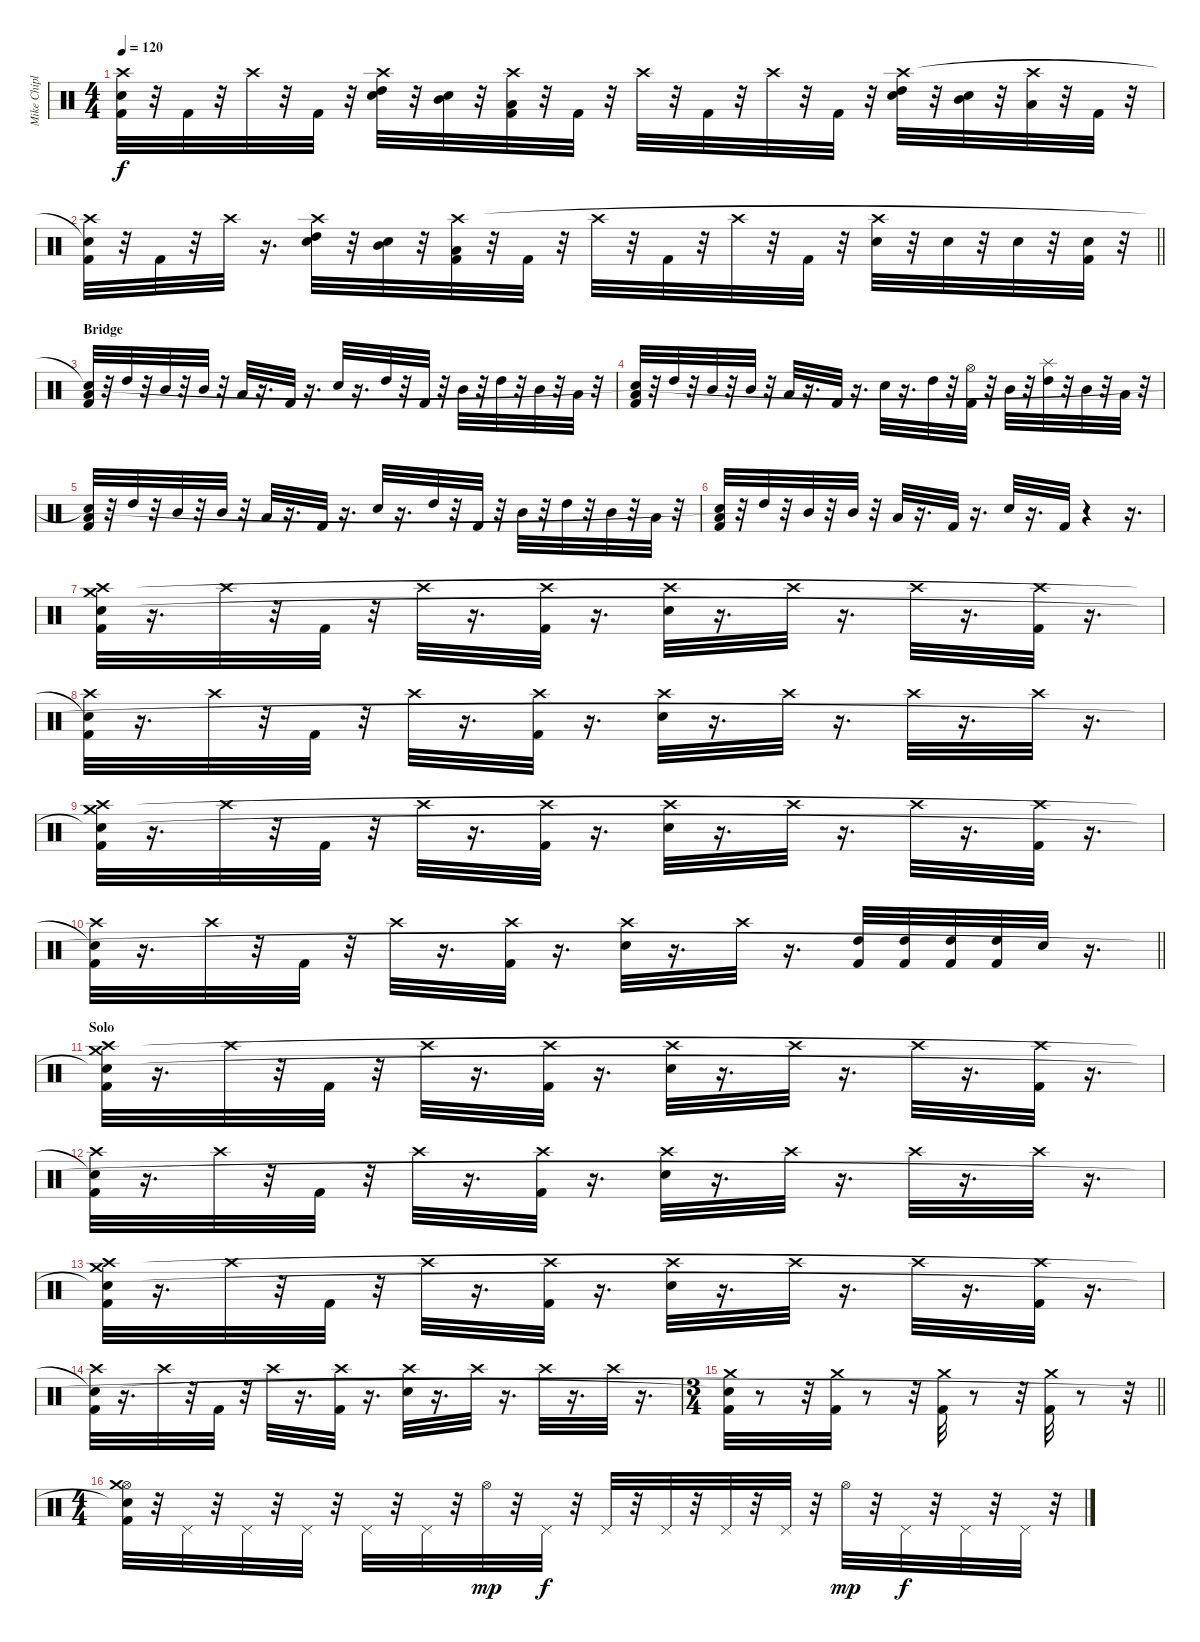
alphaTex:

\track ("Mike Chiplin - Drums" "Mike Chipl") {instrument percussion}
\staff {score}
\articulation defaults
\ts (4 4)
\tempo 120
\clef neutral
\ks c
("Kick (hit) 2" "Crash high (hit)" "Snare (hit)"{t}).32{dy f} r.32 "Kick (hit) 2".32 r.32 "Crash high (hit)".32 r.32 "Kick (hit) 2".32 r.32 ("Snare (hit) 2" "High Tom (hit)" "Crash high (hit)").32 r.32 ("Snare (hit) 2" "Mid Tom (hit)").32 r.32 ("Kick (hit) 2" "Low Tom (hit)" "Crash high (hit)").32 r.32 "Kick (hit) 2".32 r.32 "Crash high (hit)".32 r.32 "Kick (hit) 2".32 r.32 "Crash high (hit)".32 r.32 "Kick (hit) 2".32 r.32 ("Snare (hit) 2" "High Tom (hit)" "Crash high (hit)").32 r.32 ("Snare (hit) 2" "Mid Tom (hit)").32 r.32 ("Low Tom (hit)" "Crash high (hit)").32 r.32 "Kick (hit) 2".32 r.32 |
\barLineRight lightlight
("Kick (hit) 2" "Crash high (hit)" "Snare (hit)"{t}).32 r.32 "Kick (hit) 2".32 r.32 "Crash high (hit)".32 r.16{d} ("Snare (hit) 2" "High Tom (hit)" "Crash high (hit)").32 r.32 ("Snare (hit) 2" "Mid Tom (hit)").32 r.32 ("Kick (hit) 2" "Low Tom (hit)" "Crash high (hit)").32 r.32 "Kick (hit) 2".32 r.32 "Crash high (hit)".32 r.32 "Kick (hit) 2".32 r.32 "Crash high (hit)".32 r.32 "Kick (hit) 2".32 r.32 ("Snare (hit) 2" "Crash high (hit)").32 r.32 "Snare (hit) 2".32 r.32 "Snare (hit) 2".32 r.32 ("Kick (hit) 2" "Snare (hit) 2").32 r.32 |
\section ("" "Bridge")
("Kick (hit) 2" "Low Tom (hit)" "Snare (hit)"{t}).32 r.32 "High Tom (hit)".32 r.32 "Mid Tom (hit)".32 r.32 "Mid Tom (hit)".32 r.32 "Low Tom (hit)".32 r.16{d} "Kick (hit) 2".32 r.16{d} "Snare (hit) 2".32 r.16{d} "High Tom (hit)".32 r.32 "Kick (hit) 2".32 r.32 "Mid Tom (hit)".32 r.32 "High Tom (hit)".32 r.32 "Mid Tom (hit)".32 r.32 "Low Tom (hit)".32 r.32 |
("Kick (hit) 2" "Low Tom (hit)" "Snare (hit)"{t}).32 r.32 "High Tom (hit)".32 r.32 "Mid Tom (hit)".32 r.32 "Mid Tom (hit)".32 r.32 "Low Tom (hit)".32 r.16{d} "Kick (hit) 2".32 r.16{d} "Snare (hit) 2".32 r.16{d} "High Tom (hit)".32 r.32 ("Kick (hit) 2" "Hi-Hat (open)").32 r.32 "Mid Tom (hit)".32 r.32 ("High Tom (hit)" "Splash (hit)").32 r.32 "Mid Tom (hit)".32 r.32 "Low Tom (hit)".32 r.32 |
("Kick (hit) 2" "Low Tom (hit)" "Snare (hit)"{t}).32 r.32 "High Tom (hit)".32 r.32 "Mid Tom (hit)".32 r.32 "Mid Tom (hit)".32 r.32 "Low Tom (hit)".32 r.16{d} "Kick (hit) 2".32 r.16{d} "Snare (hit) 2".32 r.16{d} "High Tom (hit)".32 r.32 "Kick (hit) 2".32 r.32 "Mid Tom (hit)".32 r.32 "High Tom (hit)".32 r.32 "Mid Tom (hit)".32 r.32 "Low Tom (hit)".32 r.32 |
("Kick (hit) 2" "Low Tom (hit)" "Snare (hit)"{t}).32 r.32 "High Tom (hit)".32 r.32 "Mid Tom (hit)".32 r.32 "Mid Tom (hit)".32 r.32 "Low Tom (hit)".32 r.16{d} "Kick (hit) 2".32 r.16{d} "Snare (hit) 2".32 r.16{d} "Kick (hit) 2".32 r.4 r.16{d} |
("Kick (hit) 2" "Crash high (hit)" "Crash medium (hit)" "Snare (hit)").32 r.16{d} "Crash high (hit)".32 r.32 "Kick (hit) 2".32 r.32 "Crash high (hit)".32 r.16{d} ("Kick (hit) 2" "Crash high (hit)").32 r.16{d} ("Snare (hit) 2" "Crash high (hit)").32 r.16{d} "Crash high (hit)".32 r.16{d} "Crash high (hit)".32 r.16{d} ("Kick (hit) 2" "Crash high (hit)").32 r.16{d} |
("Kick (hit) 2" "Crash high (hit)" "Snare (hit)"{t}).32 r.16{d} "Crash high (hit)".32 r.32 "Kick (hit) 2".32 r.32 "Crash high (hit)".32 r.16{d} ("Kick (hit) 2" "Crash high (hit)").32 r.16{d} ("Snare (hit) 2" "Crash high (hit)").32 r.16{d} "Crash high (hit)".32 r.16{d} "Crash high (hit)".32 r.16{d} "Crash high (hit)".32 r.16{d} |
("Kick (hit) 2" "Crash high (hit)" "Crash medium (hit)" "Snare (hit)"{t}).32 r.16{d} "Crash high (hit)".32 r.32 "Kick (hit) 2".32 r.32 "Crash high (hit)".32 r.16{d} ("Kick (hit) 2" "Crash high (hit)").32 r.16{d} ("Snare (hit) 2" "Crash high (hit)").32 r.16{d} "Crash high (hit)".32 r.16{d} "Crash high (hit)".32 r.16{d} ("Kick (hit) 2" "Crash high (hit)").32 r.16{d} |
\barLineRight lightlight
("Kick (hit) 2" "Crash high (hit)" "Snare (hit)"{t}).32 r.16{d} "Crash high (hit)".32 r.32 "Kick (hit) 2".32 r.32 "Crash high (hit)".32 r.16{d} ("Kick (hit) 2" "Crash high (hit)").32 r.16{d} ("Snare (hit) 2" "Crash high (hit)").32 r.16{d} "Crash high (hit)".32 r.16{d} ("Kick (hit) 2" "High Tom (hit)").32 ("Kick (hit) 2" "High Tom (hit)").32 ("Kick (hit) 2" "High Tom (hit)").32 ("Kick (hit) 2" "High Tom (hit)").32 "Snare (hit) 2".32 r.16{d} |
\section ("" "Solo")
("Kick (hit) 2" "Crash high (hit)" "Crash medium (hit)" "Snare (hit)"{t}).32 r.16{d} "Crash high (hit)".32 r.32 "Kick (hit) 2".32 r.32 "Crash high (hit)".32 r.16{d} ("Kick (hit) 2" "Crash high (hit)").32 r.16{d} ("Snare (hit) 2" "Crash high (hit)").32 r.16{d} "Crash high (hit)".32 r.16{d} "Crash high (hit)".32 r.16{d} ("Kick (hit) 2" "Crash high (hit)").32 r.16{d} |
("Kick (hit) 2" "Crash high (hit)" "Snare (hit)"{t}).32 r.16{d} "Crash high (hit)".32 r.32 "Kick (hit) 2".32 r.32 "Crash high (hit)".32 r.16{d} ("Kick (hit) 2" "Crash high (hit)").32 r.16{d} ("Snare (hit) 2" "Crash high (hit)").32 r.16{d} "Crash high (hit)".32 r.16{d} "Crash high (hit)".32 r.16{d} "Crash high (hit)".32 r.16{d} |
("Kick (hit) 2" "Crash high (hit)" "Crash medium (hit)" "Snare (hit)"{t}).32 r.16{d} "Crash high (hit)".32 r.32 "Kick (hit) 2".32 r.32 "Crash high (hit)".32 r.16{d} ("Kick (hit) 2" "Crash high (hit)").32 r.16{d} ("Snare (hit) 2" "Crash high (hit)").32 r.16{d} "Crash high (hit)".32 r.16{d} "Crash high (hit)".32 r.16{d} ("Kick (hit) 2" "Crash high (hit)").32 r.16{d} |
("Kick (hit) 2" "Crash high (hit)" "Snare (hit)"{t}).32 r.16{d} "Crash high (hit)".32 r.32 "Kick (hit) 2".32 r.32 "Crash high (hit)".32 r.16{d} ("Kick (hit) 2" "Crash high (hit)").32 r.16{d} ("Snare (hit) 2" "Crash high (hit)").32 r.16{d} "Crash high (hit)".32 r.16{d} "Crash high (hit)".32 r.16{d} "Crash high (hit)".32 r.16{d} |
\ts (3 4)
\barLineRight lightlight
("Kick (hit) 2" "Crash medium (hit)" "Snare (hit)"{t}).32 r.8 r.32 ("Kick (hit) 2" "Crash medium (hit)").32 r.8 r.32 ("Kick (hit) 2" "Crash medium (hit)").32 r.8 r.32 ("Kick (hit) 2" "Crash medium (hit)").32 r.8 r.32 |
\ts (4 4)
\section ("" "")
("Kick (hit) 2" "Hi-Hat (open)" "Crash medium (hit)" "Snare (hit)"{t}).32 r.32 "Pedal Hi-Hat (hit)".32 r.32 "Pedal Hi-Hat (hit)".32 r.32 "Pedal Hi-Hat (hit)".32 r.32 "Pedal Hi-Hat (hit)".32 r.32 "Pedal Hi-Hat (hit)".32 r.32 "Hi-Hat (open)".32{dy mp} r.32 "Pedal Hi-Hat (hit)".32{dy f} r.32 "Pedal Hi-Hat (hit)".32 r.32 "Pedal Hi-Hat (hit)".32 r.32 "Pedal Hi-Hat (hit)".32 r.32 "Pedal Hi-Hat (hit)".32 r.32 "Hi-Hat (open)".32{dy mp} r.32 "Pedal Hi-Hat (hit)".32{dy f} r.32 "Pedal Hi-Hat (hit)".32 r.32 "Pedal Hi-Hat (hit)".32 r.32
